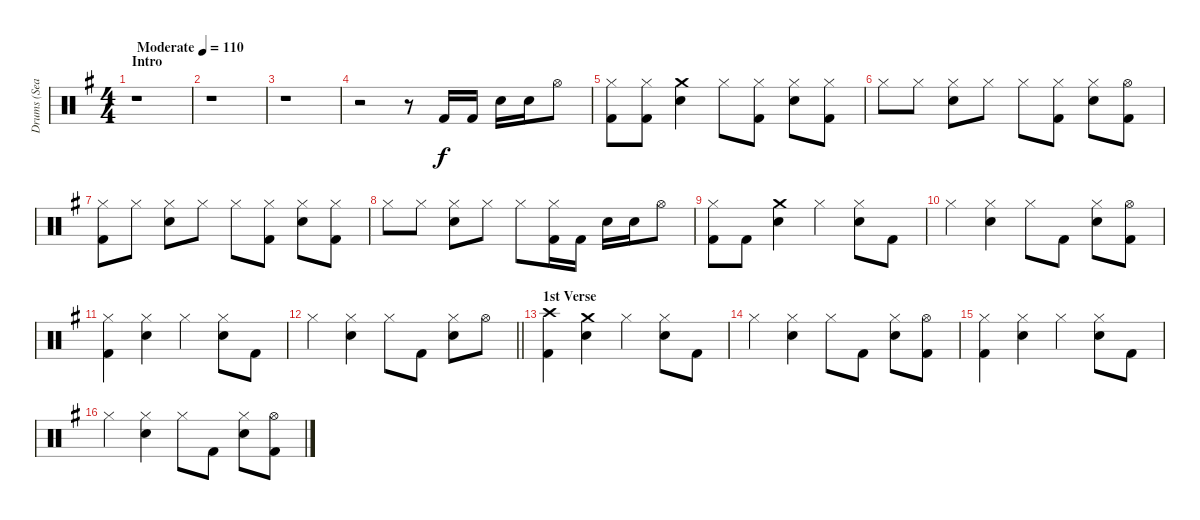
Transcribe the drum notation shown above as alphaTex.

\track ("Drums (Sean)" "Drums (Sea") {instrument percussion}
\staff {score}
\articulation defaults
\ts (4 4)
\section ("" "Intro")
\tempo (110 "Moderate")
\clef neutral
\ks g
r.1{dy f} |
r.1 |
r.1 |
r.2 r.8 "Kick (hit) 2".16 "Kick (hit) 2".16 "Snare (hit) 2".16 "Snare (hit) 2".16 "Hi-Hat (open)".8 |
("Hi-Hat (closed)" "Kick (hit) 2").8 ("Hi-Hat (closed)" "Kick (hit) 2").8 ("Crash medium (hit)" "Snare (hit) 2").4 "Hi-Hat (closed)".8 ("Hi-Hat (closed)" "Kick (hit) 2").8 ("Hi-Hat (closed)" "Snare (hit) 2").8 ("Hi-Hat (closed)" "Kick (hit) 2").8 |
"Hi-Hat (closed)".8 "Hi-Hat (closed)".8 ("Hi-Hat (closed)" "Snare (hit) 2").8 "Hi-Hat (closed)".8 "Hi-Hat (closed)".8 ("Hi-Hat (closed)" "Kick (hit) 2").8 ("Hi-Hat (closed)" "Snare (hit) 2").8 ("Hi-Hat (open)" "Kick (hit) 2").8 |
("Hi-Hat (closed)" "Kick (hit) 2").8 "Hi-Hat (closed)".8 ("Hi-Hat (closed)" "Snare (hit) 2").8 "Hi-Hat (closed)".8 "Hi-Hat (closed)".8 ("Hi-Hat (closed)" "Kick (hit) 2").8 ("Hi-Hat (closed)" "Snare (hit) 2").8 ("Hi-Hat (closed)" "Kick (hit) 2").8 |
"Hi-Hat (closed)".8 "Hi-Hat (closed)".8 ("Hi-Hat (closed)" "Snare (hit) 2").8 "Hi-Hat (closed)".8 "Hi-Hat (closed)".8 ("Hi-Hat (closed)" "Kick (hit) 2").16 "Kick (hit) 2".16 "Snare (hit) 2".16 "Snare (hit) 2".16 "Hi-Hat (open)".8 |
("Hi-Hat (closed)" "Kick (hit) 2").8 "Kick (hit) 2".8 ("Crash medium (hit)" "Snare (hit) 2").4 "Hi-Hat (closed)".4 ("Hi-Hat (closed)" "Snare (hit) 2").8 "Kick (hit) 2".8 |
"Hi-Hat (closed)".4 ("Hi-Hat (closed)" "Snare (hit) 2").4 "Hi-Hat (closed)".8 "Kick (hit) 2".8 ("Hi-Hat (closed)" "Snare (hit) 2").8 ("Hi-Hat (open)" "Kick (hit) 2").8 |
("Hi-Hat (closed)" "Kick (hit) 2").4 ("Hi-Hat (closed)" "Snare (hit) 2").4 "Hi-Hat (closed)".4 ("Hi-Hat (closed)" "Snare (hit) 2").8 "Kick (hit) 2".8 |
\barLineRight lightlight "Hi-Hat (closed)".4
("Hi-Hat (closed)" "Snare (hit) 2").4 "Hi-Hat (closed)".8 "Kick (hit) 2".8 ("Hi-Hat (closed)" "Snare (hit) 2").8 "Hi-Hat (open)".8 |
\section ("" "1st Verse")
("Crash high (hit)" "Kick (hit) 2").4 ("Crash medium (hit)" "Snare (hit) 2").4 "Hi-Hat (closed)".4 ("Hi-Hat (closed)" "Snare (hit) 2").8 "Kick (hit) 2".8 |
"Hi-Hat (closed)".4 ("Hi-Hat (closed)" "Snare (hit) 2").4 "Hi-Hat (closed)".8 "Kick (hit) 2".8 ("Hi-Hat (closed)" "Snare (hit) 2").8 ("Hi-Hat (open)" "Kick (hit) 2").8 |
("Hi-Hat (closed)" "Kick (hit) 2").4 ("Hi-Hat (closed)" "Snare (hit) 2").4 "Hi-Hat (closed)".4 ("Hi-Hat (closed)" "Snare (hit) 2").8 "Kick (hit) 2".8 |
"Hi-Hat (closed)".4 ("Hi-Hat (closed)" "Snare (hit) 2").4 "Hi-Hat (closed)".8 "Kick (hit) 2".8 ("Hi-Hat (closed)" "Snare (hit) 2").8 ("Hi-Hat (open)" "Kick (hit) 2").8
